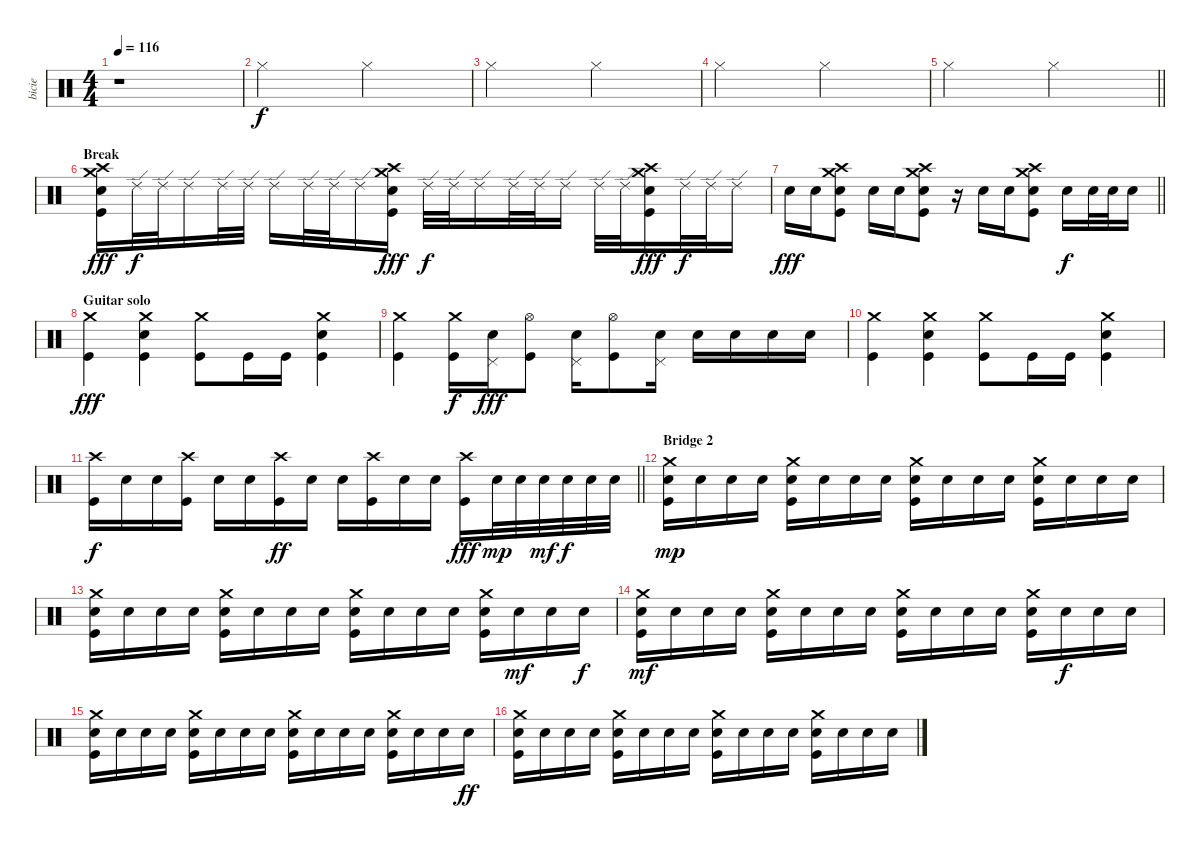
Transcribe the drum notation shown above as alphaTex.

\track ("bicie" "bicie") {instrument percussion}
\staff {score}
\articulation defaults
\ts (4 4)
\tempo 116
\clef neutral
\ks c
r.1{dy mf} |
"Hi-Hat (closed)".2{dy f} "Hi-Hat (closed)".2 |
"Hi-Hat (closed)".2 "Hi-Hat (closed)".2 |
"Hi-Hat (closed)".2 "Hi-Hat (closed)".2 |
\barLineRight lightlight "Hi-Hat (closed)".2 "Hi-Hat (closed)".2
|
\section ("" "Break")
("Crash high (hit)" "Crash medium (hit)" "Electric Snare (hit)" "Kick (hit)").16{dy fff} "Ride (edge) 2".32{dy f} "Ride (edge) 2".32 "Ride (edge) 2".16 "Ride (edge) 2".32 "Ride (edge) 2".32 "Ride (edge) 2".16 "Ride (edge) 2".32 "Ride (edge) 2".32 "Ride (edge) 2".16 ("Crash high (hit)" "Crash medium (hit)" "Electric Snare (hit)" "Kick (hit)").16{dy fff} "Ride (edge) 2".32{dy f} "Ride (edge) 2".32 "Ride (edge) 2".16 "Ride (edge) 2".32 "Ride (edge) 2".32 "Ride (edge) 2".16 "Ride (edge) 2".32 "Ride (edge) 2".32 ("Crash high (hit)" "Crash medium (hit)" "Electric Snare (hit)" "Kick (hit)").16{dy fff} "Ride (edge) 2".32{dy f} "Ride (edge) 2".32 "Ride (edge) 2".16 |
\barLineRight lightlight "Electric Snare (hit)".16{dy fff} "Electric Snare (hit)".16
("Crash high (hit)" "Crash medium (hit)" "Electric Snare (hit)" "Kick (hit)").8 "Electric Snare (hit)".16 "Electric Snare (hit)".16 ("Crash high (hit)" "Crash medium (hit)" "Electric Snare (hit)" "Kick (hit)").8 r.16 "Electric Snare (hit)".16 "Electric Snare (hit)".16 ("Crash high (hit)" "Crash medium (hit)" "Electric Snare (hit)" "Kick (hit)").8 "Electric Snare (hit)".16{dy f} "Electric Snare (hit)".32 "Electric Snare (hit)".32 "Electric Snare (hit)".16 |
\section ("" "Guitar solo")
("Crash medium (hit)" "Kick (hit)").4{dy fff} ("Crash medium (hit)" "Electric Snare (hit)" "Kick (hit)").4 ("Crash medium (hit)" "Kick (hit)").8 "Kick (hit)".16 "Kick (hit)".16 ("Crash medium (hit)" "Electric Snare (hit)" "Kick (hit)").4 |
("Crash medium (hit)" "Kick (hit)").4 ("Crash medium (hit)" "Kick (hit)").16{dy f} ("Pedal Hi-Hat (hit)" "Electric Snare (hit)").16{dy fff} ("Hi-Hat (open)" "Kick (hit)").8 ("Pedal Hi-Hat (hit)" "Electric Snare (hit)").16 ("Hi-Hat (open)" "Kick (hit)").8 ("Pedal Hi-Hat (hit)" "Electric Snare (hit)").16 "Electric Snare (hit)".16 "Electric Snare (hit)".16 "Electric Snare (hit)".16 "Electric Snare (hit)".16 |
("Crash medium (hit)" "Kick (hit)").4 ("Crash medium (hit)" "Electric Snare (hit)" "Kick (hit)").4 ("Crash medium (hit)" "Kick (hit)").8 "Kick (hit)".16 "Kick (hit)".16 ("Crash medium (hit)" "Electric Snare (hit)" "Kick (hit)").4 |
\barLineRight lightlight
("Crash high (hit)" "Kick (hit)").16{dy f} "Electric Snare (hit)".16 "Electric Snare (hit)".16 ("Crash high (hit)" "Kick (hit)").16 "Electric Snare (hit)".16 "Electric Snare (hit)".16 ("Crash high (hit)" "Kick (hit)").16{dy ff} "Electric Snare (hit)".16 "Electric Snare (hit)".16 ("Crash high (hit)" "Kick (hit)").16 "Electric Snare (hit)".16 "Electric Snare (hit)".16 ("Crash high (hit)" "Kick (hit)").16{dy fff} "Electric Snare (hit)".32{dy mp} "Electric Snare (hit)".32 "Electric Snare (hit)".32{dy mf} "Electric Snare (hit)".32{dy f} "Electric Snare (hit)".32 "Electric Snare (hit)".32 |
\section ("" "Bridge 2")
("Crash medium (hit)" "Electric Snare (hit)" "Kick (hit)").16{dy mp} "Electric Snare (hit)".16 "Electric Snare (hit)".16 "Electric Snare (hit)".16 ("Crash medium (hit)" "Electric Snare (hit)" "Kick (hit)").16 "Electric Snare (hit)".16 "Electric Snare (hit)".16 "Electric Snare (hit)".16 ("Crash medium (hit)" "Electric Snare (hit)" "Kick (hit)").16 "Electric Snare (hit)".16 "Electric Snare (hit)".16 "Electric Snare (hit)".16 ("Crash medium (hit)" "Electric Snare (hit)" "Kick (hit)").16 "Electric Snare (hit)".16 "Electric Snare (hit)".16 "Electric Snare (hit)".16 |
("Crash medium (hit)" "Electric Snare (hit)" "Kick (hit)").16 "Electric Snare (hit)".16 "Electric Snare (hit)".16 "Electric Snare (hit)".16 ("Crash medium (hit)" "Electric Snare (hit)" "Kick (hit)").16 "Electric Snare (hit)".16 "Electric Snare (hit)".16 "Electric Snare (hit)".16 ("Crash medium (hit)" "Electric Snare (hit)" "Kick (hit)").16 "Electric Snare (hit)".16 "Electric Snare (hit)".16 "Electric Snare (hit)".16 ("Crash medium (hit)" "Electric Snare (hit)" "Kick (hit)").16 "Electric Snare (hit)".16{dy mf} "Electric Snare (hit)".16 "Electric Snare (hit)".16{dy f} |
("Crash medium (hit)" "Electric Snare (hit)" "Kick (hit)").16{dy mf} "Electric Snare (hit)".16 "Electric Snare (hit)".16 "Electric Snare (hit)".16 ("Crash medium (hit)" "Electric Snare (hit)" "Kick (hit)").16 "Electric Snare (hit)".16 "Electric Snare (hit)".16 "Electric Snare (hit)".16 ("Crash medium (hit)" "Electric Snare (hit)" "Kick (hit)").16 "Electric Snare (hit)".16 "Electric Snare (hit)".16 "Electric Snare (hit)".16 ("Crash medium (hit)" "Electric Snare (hit)" "Kick (hit)").16 "Electric Snare (hit)".16{dy f} "Electric Snare (hit)".16 "Electric Snare (hit)".16 |
("Crash medium (hit)" "Electric Snare (hit)" "Kick (hit)").16 "Electric Snare (hit)".16 "Electric Snare (hit)".16 "Electric Snare (hit)".16 ("Crash medium (hit)" "Electric Snare (hit)" "Kick (hit)").16 "Electric Snare (hit)".16 "Electric Snare (hit)".16 "Electric Snare (hit)".16 ("Crash medium (hit)" "Electric Snare (hit)" "Kick (hit)").16 "Electric Snare (hit)".16 "Electric Snare (hit)".16 "Electric Snare (hit)".16 ("Crash medium (hit)" "Electric Snare (hit)" "Kick (hit)").16 "Electric Snare (hit)".16 "Electric Snare (hit)".16 "Electric Snare (hit)".16{dy ff} |
("Crash medium (hit)" "Electric Snare (hit)" "Kick (hit)").16 "Electric Snare (hit)".16 "Electric Snare (hit)".16 "Electric Snare (hit)".16 ("Crash medium (hit)" "Electric Snare (hit)" "Kick (hit)").16 "Electric Snare (hit)".16 "Electric Snare (hit)".16 "Electric Snare (hit)".16 ("Crash medium (hit)" "Electric Snare (hit)" "Kick (hit)").16 "Electric Snare (hit)".16 "Electric Snare (hit)".16 "Electric Snare (hit)".16 ("Crash medium (hit)" "Electric Snare (hit)" "Kick (hit)").16 "Electric Snare (hit)".16 "Electric Snare (hit)".16 "Electric Snare (hit)".16
